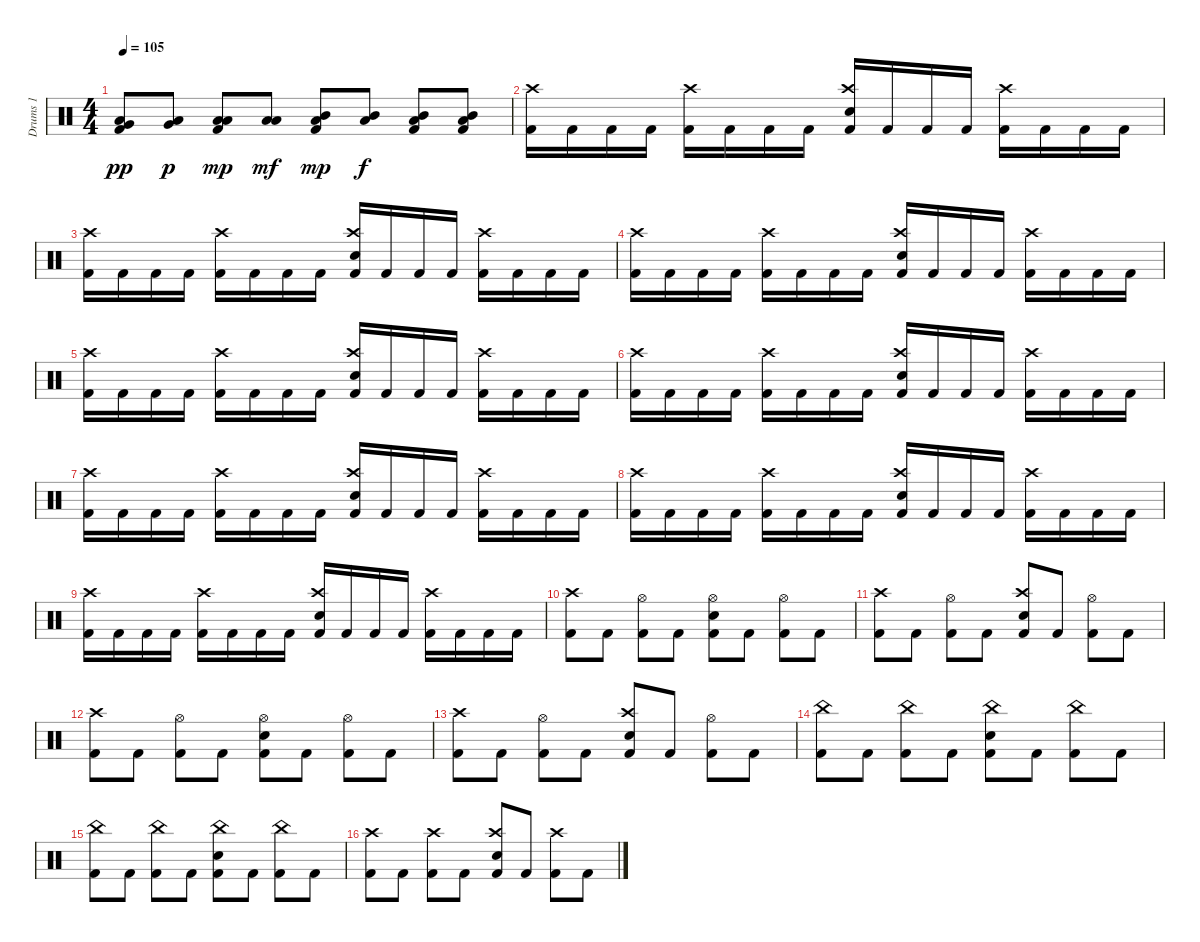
\track ("Drums 1" "Drums 1") {instrument percussion}
\staff
\articulation defaults
\ts (4 4)
\tempo 105
\clef neutral
\ks c
("Kick (hit) 2" "Low Tom (hit)" "Very Low Tom (hit)").8{dy pp} ("Low Tom (hit)" "Very Low Tom (hit)").8{dy p} ("Kick (hit) 2" "Low Tom (hit)" "Low Tom (hit)").8{dy mp} ("Low Tom (hit)" "Low Tom (hit)").8{dy mf} ("Kick (hit) 2" "Low Tom (hit)" "Mid Tom (hit)").8{dy mp} ("Low Tom (hit)" "Mid Tom (hit)").8{dy f} ("Kick (hit) 2" "Low Tom (hit)" "Mid Tom (hit)").8 ("Kick (hit) 2" "Low Tom (hit)" "Mid Tom (hit)").8 |
("Crash high (hit)" "Kick (hit) 2").16 "Kick (hit) 2".16 "Kick (hit) 2".16 "Kick (hit) 2".16 ("Crash high (hit)" "Kick (hit) 2").16 "Kick (hit) 2".16 "Kick (hit) 2".16 "Kick (hit) 2".16 ("Crash high (hit)" "Electric Snare (hit)" "Kick (hit) 2").16 "Kick (hit) 2".16 "Kick (hit) 2".16 "Kick (hit) 2".16 ("Crash high (hit)" "Kick (hit) 2").16 "Kick (hit) 2".16 "Kick (hit) 2".16 "Kick (hit) 2".16 |
("Crash high (hit)" "Kick (hit) 2").16 "Kick (hit) 2".16 "Kick (hit) 2".16 "Kick (hit) 2".16 ("Crash high (hit)" "Kick (hit) 2").16 "Kick (hit) 2".16 "Kick (hit) 2".16 "Kick (hit) 2".16 ("Crash high (hit)" "Electric Snare (hit)" "Kick (hit) 2").16 "Kick (hit) 2".16 "Kick (hit) 2".16 "Kick (hit) 2".16 ("Crash high (hit)" "Kick (hit) 2").16 "Kick (hit) 2".16 "Kick (hit) 2".16 "Kick (hit) 2".16 |
("Crash high (hit)" "Kick (hit) 2").16 "Kick (hit) 2".16 "Kick (hit) 2".16 "Kick (hit) 2".16 ("Crash high (hit)" "Kick (hit) 2").16 "Kick (hit) 2".16 "Kick (hit) 2".16 "Kick (hit) 2".16 ("Crash high (hit)" "Electric Snare (hit)" "Kick (hit) 2").16 "Kick (hit) 2".16 "Kick (hit) 2".16 "Kick (hit) 2".16 ("Crash high (hit)" "Kick (hit) 2").16 "Kick (hit) 2".16 "Kick (hit) 2".16 "Kick (hit) 2".16 |
("Crash high (hit)" "Kick (hit) 2").16 "Kick (hit) 2".16 "Kick (hit) 2".16 "Kick (hit) 2".16 ("Crash high (hit)" "Kick (hit) 2").16 "Kick (hit) 2".16 "Kick (hit) 2".16 "Kick (hit) 2".16 ("Crash high (hit)" "Electric Snare (hit)" "Kick (hit) 2").16 "Kick (hit) 2".16 "Kick (hit) 2".16 "Kick (hit) 2".16 ("Crash high (hit)" "Kick (hit) 2").16 "Kick (hit) 2".16 "Kick (hit) 2".16 "Kick (hit) 2".16 |
("Crash high (hit)" "Kick (hit) 2").16 "Kick (hit) 2".16 "Kick (hit) 2".16 "Kick (hit) 2".16 ("Crash high (hit)" "Kick (hit) 2").16 "Kick (hit) 2".16 "Kick (hit) 2".16 "Kick (hit) 2".16 ("Crash high (hit)" "Electric Snare (hit)" "Kick (hit) 2").16 "Kick (hit) 2".16 "Kick (hit) 2".16 "Kick (hit) 2".16 ("Crash high (hit)" "Kick (hit) 2").16 "Kick (hit) 2".16 "Kick (hit) 2".16 "Kick (hit) 2".16 |
("Crash high (hit)" "Kick (hit) 2").16 "Kick (hit) 2".16 "Kick (hit) 2".16 "Kick (hit) 2".16 ("Crash high (hit)" "Kick (hit) 2").16 "Kick (hit) 2".16 "Kick (hit) 2".16 "Kick (hit) 2".16 ("Crash high (hit)" "Electric Snare (hit)" "Kick (hit) 2").16 "Kick (hit) 2".16 "Kick (hit) 2".16 "Kick (hit) 2".16 ("Crash high (hit)" "Kick (hit) 2").16 "Kick (hit) 2".16 "Kick (hit) 2".16 "Kick (hit) 2".16 |
("Crash high (hit)" "Kick (hit) 2").16 "Kick (hit) 2".16 "Kick (hit) 2".16 "Kick (hit) 2".16 ("Crash high (hit)" "Kick (hit) 2").16 "Kick (hit) 2".16 "Kick (hit) 2".16 "Kick (hit) 2".16 ("Crash high (hit)" "Electric Snare (hit)" "Kick (hit) 2").16 "Kick (hit) 2".16 "Kick (hit) 2".16 "Kick (hit) 2".16 ("Crash high (hit)" "Kick (hit) 2").16 "Kick (hit) 2".16 "Kick (hit) 2".16 "Kick (hit) 2".16 |
("Crash high (hit)" "Kick (hit) 2").16 "Kick (hit) 2".16 "Kick (hit) 2".16 "Kick (hit) 2".16 ("Crash high (hit)" "Kick (hit) 2").16 "Kick (hit) 2".16 "Kick (hit) 2".16 "Kick (hit) 2".16 ("Crash high (hit)" "Electric Snare (hit)" "Kick (hit) 2").16 "Kick (hit) 2".16 "Kick (hit) 2".16 "Kick (hit) 2".16 ("Crash high (hit)" "Kick (hit) 2").16 "Kick (hit) 2".16 "Kick (hit) 2".16 "Kick (hit) 2".16 |
("Kick (hit) 2" "Crash high (hit)").8 "Kick (hit) 2".8 ("Kick (hit) 2" "Hi-Hat (open)").8 "Kick (hit) 2".8 ("Kick (hit) 2" "Electric Snare (hit)" "Hi-Hat (open)").8 "Kick (hit) 2".8 ("Kick (hit) 2" "Hi-Hat (open)").8 "Kick (hit) 2".8 |
("Kick (hit) 2" "Crash high (hit)").8 "Kick (hit) 2".8 ("Kick (hit) 2" "Hi-Hat (open)").8 "Kick (hit) 2".8 ("Kick (hit) 2" "Electric Snare (hit)" "Crash high (hit)").8 "Kick (hit) 2".8 ("Kick (hit) 2" "Hi-Hat (open)").8 "Kick (hit) 2".8 |
("Kick (hit) 2" "Crash high (hit)").8 "Kick (hit) 2".8 ("Kick (hit) 2" "Hi-Hat (open)").8 "Kick (hit) 2".8 ("Kick (hit) 2" "Electric Snare (hit)" "Hi-Hat (open)").8 "Kick (hit) 2".8 ("Kick (hit) 2" "Hi-Hat (open)").8 "Kick (hit) 2".8 |
("Kick (hit) 2" "Crash high (hit)").8 "Kick (hit) 2".8 ("Kick (hit) 2" "Hi-Hat (open)").8 "Kick (hit) 2".8 ("Kick (hit) 2" "Electric Snare (hit)" "Crash high (hit)").8 "Kick (hit) 2".8 ("Kick (hit) 2" "Hi-Hat (open)").8 "Kick (hit) 2".8 |
("Kick (hit) 2" "China (hit)").8 "Kick (hit) 2".8 ("Kick (hit) 2" "China (hit)").8 "Kick (hit) 2".8 ("Kick (hit) 2" "Electric Snare (hit)" "China (hit)").8 "Kick (hit) 2".8 ("Kick (hit) 2" "China (hit)").8 "Kick (hit) 2".8 |
("Kick (hit) 2" "China (hit)").8 "Kick (hit) 2".8 ("Kick (hit) 2" "China (hit)").8 "Kick (hit) 2".8 ("Kick (hit) 2" "Electric Snare (hit)" "China (hit)").8 "Kick (hit) 2".8 ("Kick (hit) 2" "China (hit)").8 "Kick (hit) 2".8 |
("Kick (hit) 2" "Crash high (hit)").8 "Kick (hit) 2".8 ("Kick (hit) 2" "Crash high (hit)").8 "Kick (hit) 2".8 ("Kick (hit) 2" "Electric Snare (hit)" "Crash high (hit)").8 "Kick (hit) 2".8 ("Kick (hit) 2" "Crash high (hit)").8 "Kick (hit) 2".8
